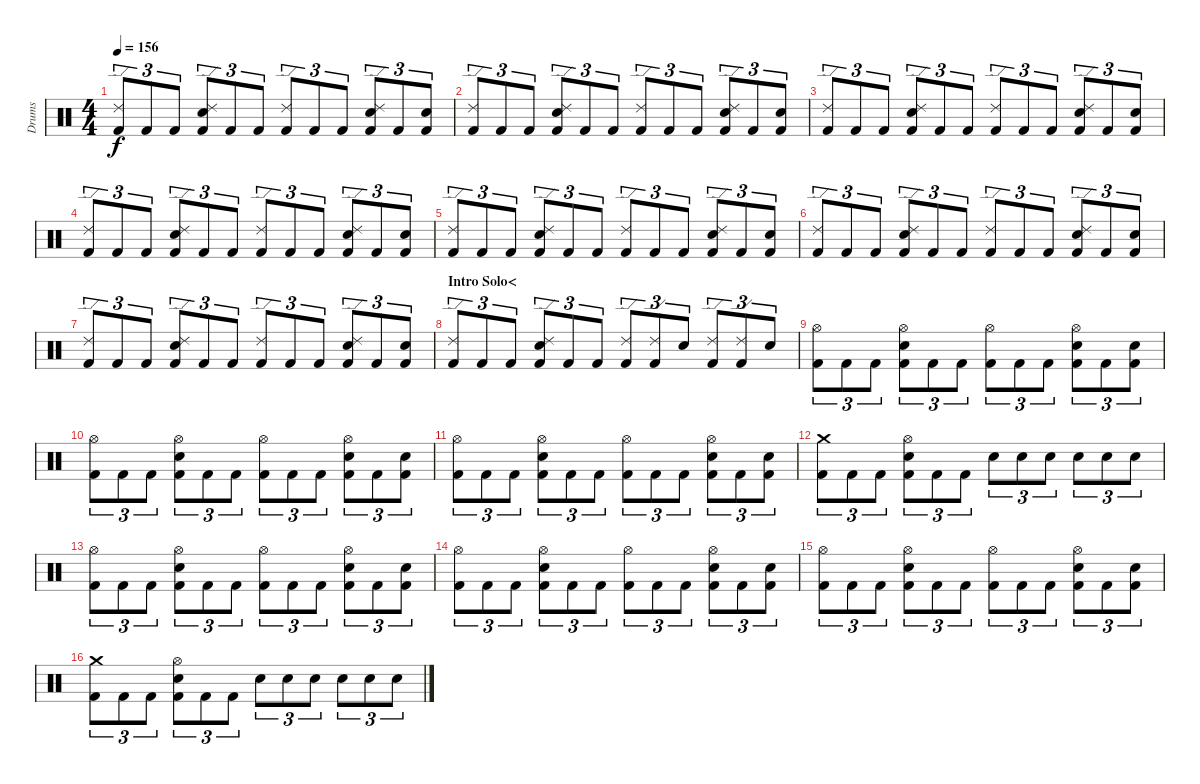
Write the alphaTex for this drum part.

\track ("Drums" "Drums") {instrument percussion}
\staff {score}
\articulation defaults
\ts (4 4)
\tempo 156
\clef neutral
\ks c
("Ride (edge) 2" "Kick (hit) 2").8{tu (3 2) dy f} "Kick (hit) 2".8{tu (3 2)} "Kick (hit) 2".8{tu (3 2)} ("Ride (edge) 2" "Electric Snare (hit)" "Kick (hit) 2").8{tu (3 2)} "Kick (hit) 2".8{tu (3 2)} "Kick (hit) 2".8{tu (3 2)} ("Ride (edge) 2" "Kick (hit) 2").8{tu (3 2)} "Kick (hit) 2".8{tu (3 2)} "Kick (hit) 2".8{tu (3 2)} ("Ride (edge) 2" "Electric Snare (hit)" "Kick (hit) 2").8{tu (3 2)} "Kick (hit) 2".8{tu (3 2)} ("Electric Snare (hit)" "Kick (hit) 2").8{tu (3 2)} |
("Ride (edge) 2" "Kick (hit) 2").8{tu (3 2)} "Kick (hit) 2".8{tu (3 2)} "Kick (hit) 2".8{tu (3 2)} ("Ride (edge) 2" "Electric Snare (hit)" "Kick (hit) 2").8{tu (3 2)} "Kick (hit) 2".8{tu (3 2)} "Kick (hit) 2".8{tu (3 2)} ("Ride (edge) 2" "Kick (hit) 2").8{tu (3 2)} "Kick (hit) 2".8{tu (3 2)} "Kick (hit) 2".8{tu (3 2)} ("Ride (edge) 2" "Electric Snare (hit)" "Kick (hit) 2").8{tu (3 2)} "Kick (hit) 2".8{tu (3 2)} ("Electric Snare (hit)" "Kick (hit) 2").8{tu (3 2)} |
("Ride (edge) 2" "Kick (hit) 2").8{tu (3 2)} "Kick (hit) 2".8{tu (3 2)} "Kick (hit) 2".8{tu (3 2)} ("Ride (edge) 2" "Electric Snare (hit)" "Kick (hit) 2").8{tu (3 2)} "Kick (hit) 2".8{tu (3 2)} "Kick (hit) 2".8{tu (3 2)} ("Ride (edge) 2" "Kick (hit) 2").8{tu (3 2)} "Kick (hit) 2".8{tu (3 2)} "Kick (hit) 2".8{tu (3 2)} ("Ride (edge) 2" "Electric Snare (hit)" "Kick (hit) 2").8{tu (3 2)} "Kick (hit) 2".8{tu (3 2)} ("Electric Snare (hit)" "Kick (hit) 2").8{tu (3 2)} |
("Ride (edge) 2" "Kick (hit) 2").8{tu (3 2)} "Kick (hit) 2".8{tu (3 2)} "Kick (hit) 2".8{tu (3 2)} ("Ride (edge) 2" "Electric Snare (hit)" "Kick (hit) 2").8{tu (3 2)} "Kick (hit) 2".8{tu (3 2)} "Kick (hit) 2".8{tu (3 2)} ("Ride (edge) 2" "Kick (hit) 2").8{tu (3 2)} "Kick (hit) 2".8{tu (3 2)} "Kick (hit) 2".8{tu (3 2)} ("Ride (edge) 2" "Electric Snare (hit)" "Kick (hit) 2").8{tu (3 2)} "Kick (hit) 2".8{tu (3 2)} ("Electric Snare (hit)" "Kick (hit) 2").8{tu (3 2)} |
("Ride (edge) 2" "Kick (hit) 2").8{tu (3 2)} "Kick (hit) 2".8{tu (3 2)} "Kick (hit) 2".8{tu (3 2)} ("Ride (edge) 2" "Electric Snare (hit)" "Kick (hit) 2").8{tu (3 2)} "Kick (hit) 2".8{tu (3 2)} "Kick (hit) 2".8{tu (3 2)} ("Ride (edge) 2" "Kick (hit) 2").8{tu (3 2)} "Kick (hit) 2".8{tu (3 2)} "Kick (hit) 2".8{tu (3 2)} ("Ride (edge) 2" "Electric Snare (hit)" "Kick (hit) 2").8{tu (3 2)} "Kick (hit) 2".8{tu (3 2)} ("Electric Snare (hit)" "Kick (hit) 2").8{tu (3 2)} |
("Ride (edge) 2" "Kick (hit) 2").8{tu (3 2)} "Kick (hit) 2".8{tu (3 2)} "Kick (hit) 2".8{tu (3 2)} ("Ride (edge) 2" "Electric Snare (hit)" "Kick (hit) 2").8{tu (3 2)} "Kick (hit) 2".8{tu (3 2)} "Kick (hit) 2".8{tu (3 2)} ("Ride (edge) 2" "Kick (hit) 2").8{tu (3 2)} "Kick (hit) 2".8{tu (3 2)} "Kick (hit) 2".8{tu (3 2)} ("Ride (edge) 2" "Electric Snare (hit)" "Kick (hit) 2").8{tu (3 2)} "Kick (hit) 2".8{tu (3 2)} ("Electric Snare (hit)" "Kick (hit) 2").8{tu (3 2)} |
("Ride (edge) 2" "Kick (hit) 2").8{tu (3 2)} "Kick (hit) 2".8{tu (3 2)} "Kick (hit) 2".8{tu (3 2)} ("Ride (edge) 2" "Electric Snare (hit)" "Kick (hit) 2").8{tu (3 2)} "Kick (hit) 2".8{tu (3 2)} "Kick (hit) 2".8{tu (3 2)} ("Ride (edge) 2" "Kick (hit) 2").8{tu (3 2)} "Kick (hit) 2".8{tu (3 2)} "Kick (hit) 2".8{tu (3 2)} ("Ride (edge) 2" "Electric Snare (hit)" "Kick (hit) 2").8{tu (3 2)} "Kick (hit) 2".8{tu (3 2)} ("Electric Snare (hit)" "Kick (hit) 2").8{tu (3 2)} |
\section ("" "Intro Solo<")
("Ride (edge) 2" "Kick (hit) 2").8{tu (3 2)} "Kick (hit) 2".8{tu (3 2)} "Kick (hit) 2".8{tu (3 2)} ("Electric Snare (hit)" "Kick (hit) 2" "Ride (edge) 2").8{tu (3 2)} "Kick (hit) 2".8{tu (3 2)} "Kick (hit) 2".8{tu (3 2)} ("Ride (edge) 2" "Kick (hit) 2").8{tu (3 2)} ("Ride (edge) 2" "Kick (hit) 2").8{tu (3 2)} "Electric Snare (hit)".8{tu (3 2)} ("Kick (hit) 2" "Ride (edge) 2").8{tu (3 2)} ("Ride (edge) 2" "Kick (hit) 2").8{tu (3 2)} "Electric Snare (hit)".8{tu (3 2)} |
("Hi-Hat (open)" "Kick (hit) 2").8{tu (3 2)} "Kick (hit) 2".8{tu (3 2)} "Kick (hit) 2".8{tu (3 2)} ("Electric Snare (hit)" "Kick (hit) 2" "Hi-Hat (open)").8{tu (3 2)} "Kick (hit) 2".8{tu (3 2)} "Kick (hit) 2".8{tu (3 2)} ("Hi-Hat (open)" "Kick (hit) 2").8{tu (3 2)} "Kick (hit) 2".8{tu (3 2)} "Kick (hit) 2".8{tu (3 2)} ("Electric Snare (hit)" "Kick (hit) 2" "Hi-Hat (open)").8{tu (3 2)} "Kick (hit) 2".8{tu (3 2)} ("Kick (hit) 2" "Electric Snare (hit)").8{tu (3 2)} |
("Hi-Hat (open)" "Kick (hit) 2").8{tu (3 2)} "Kick (hit) 2".8{tu (3 2)} "Kick (hit) 2".8{tu (3 2)} ("Electric Snare (hit)" "Kick (hit) 2" "Hi-Hat (open)").8{tu (3 2)} "Kick (hit) 2".8{tu (3 2)} "Kick (hit) 2".8{tu (3 2)} ("Hi-Hat (open)" "Kick (hit) 2").8{tu (3 2)} "Kick (hit) 2".8{tu (3 2)} "Kick (hit) 2".8{tu (3 2)} ("Electric Snare (hit)" "Kick (hit) 2" "Hi-Hat (open)").8{tu (3 2)} "Kick (hit) 2".8{tu (3 2)} ("Kick (hit) 2" "Electric Snare (hit)").8{tu (3 2)} |
("Hi-Hat (open)" "Kick (hit) 2").8{tu (3 2)} "Kick (hit) 2".8{tu (3 2)} "Kick (hit) 2".8{tu (3 2)} ("Electric Snare (hit)" "Kick (hit) 2" "Hi-Hat (open)").8{tu (3 2)} "Kick (hit) 2".8{tu (3 2)} "Kick (hit) 2".8{tu (3 2)} ("Hi-Hat (open)" "Kick (hit) 2").8{tu (3 2)} "Kick (hit) 2".8{tu (3 2)} "Kick (hit) 2".8{tu (3 2)} ("Electric Snare (hit)" "Kick (hit) 2" "Hi-Hat (open)").8{tu (3 2)} "Kick (hit) 2".8{tu (3 2)} ("Kick (hit) 2" "Electric Snare (hit)").8{tu (3 2)} |
("Crash medium (hit)" "Kick (hit) 2").8{tu (3 2)} "Kick (hit) 2".8{tu (3 2)} "Kick (hit) 2".8{tu (3 2)} ("Electric Snare (hit)" "Kick (hit) 2" "Hi-Hat (open)").8{tu (3 2)} "Kick (hit) 2".8{tu (3 2)} "Kick (hit) 2".8{tu (3 2)} "Electric Snare (hit)".8{tu (3 2)} "Electric Snare (hit)".8{tu (3 2)} "Electric Snare (hit)".8{tu (3 2)} "Electric Snare (hit)".8{tu (3 2)} "Electric Snare (hit)".8{tu (3 2)} "Electric Snare (hit)".8{tu (3 2)} |
("Hi-Hat (open)" "Kick (hit) 2").8{tu (3 2)} "Kick (hit) 2".8{tu (3 2)} "Kick (hit) 2".8{tu (3 2)} ("Electric Snare (hit)" "Kick (hit) 2" "Hi-Hat (open)").8{tu (3 2)} "Kick (hit) 2".8{tu (3 2)} "Kick (hit) 2".8{tu (3 2)} ("Hi-Hat (open)" "Kick (hit) 2").8{tu (3 2)} "Kick (hit) 2".8{tu (3 2)} "Kick (hit) 2".8{tu (3 2)} ("Electric Snare (hit)" "Kick (hit) 2" "Hi-Hat (open)").8{tu (3 2)} "Kick (hit) 2".8{tu (3 2)} ("Kick (hit) 2" "Electric Snare (hit)").8{tu (3 2)} |
("Hi-Hat (open)" "Kick (hit) 2").8{tu (3 2)} "Kick (hit) 2".8{tu (3 2)} "Kick (hit) 2".8{tu (3 2)} ("Electric Snare (hit)" "Kick (hit) 2" "Hi-Hat (open)").8{tu (3 2)} "Kick (hit) 2".8{tu (3 2)} "Kick (hit) 2".8{tu (3 2)} ("Hi-Hat (open)" "Kick (hit) 2").8{tu (3 2)} "Kick (hit) 2".8{tu (3 2)} "Kick (hit) 2".8{tu (3 2)} ("Electric Snare (hit)" "Kick (hit) 2" "Hi-Hat (open)").8{tu (3 2)} "Kick (hit) 2".8{tu (3 2)} ("Kick (hit) 2" "Electric Snare (hit)").8{tu (3 2)} |
("Hi-Hat (open)" "Kick (hit) 2").8{tu (3 2)} "Kick (hit) 2".8{tu (3 2)} "Kick (hit) 2".8{tu (3 2)} ("Electric Snare (hit)" "Kick (hit) 2" "Hi-Hat (open)").8{tu (3 2)} "Kick (hit) 2".8{tu (3 2)} "Kick (hit) 2".8{tu (3 2)} ("Hi-Hat (open)" "Kick (hit) 2").8{tu (3 2)} "Kick (hit) 2".8{tu (3 2)} "Kick (hit) 2".8{tu (3 2)} ("Electric Snare (hit)" "Kick (hit) 2" "Hi-Hat (open)").8{tu (3 2)} "Kick (hit) 2".8{tu (3 2)} ("Kick (hit) 2" "Electric Snare (hit)").8{tu (3 2)} |
("Crash medium (hit)" "Kick (hit) 2").8{tu (3 2)} "Kick (hit) 2".8{tu (3 2)} "Kick (hit) 2".8{tu (3 2)} ("Electric Snare (hit)" "Kick (hit) 2" "Hi-Hat (open)").8{tu (3 2)} "Kick (hit) 2".8{tu (3 2)} "Kick (hit) 2".8{tu (3 2)} "Electric Snare (hit)".8{tu (3 2)} "Electric Snare (hit)".8{tu (3 2)} "Electric Snare (hit)".8{tu (3 2)} "Electric Snare (hit)".8{tu (3 2)} "Electric Snare (hit)".8{tu (3 2)} "Electric Snare (hit)".8{tu (3 2)}
